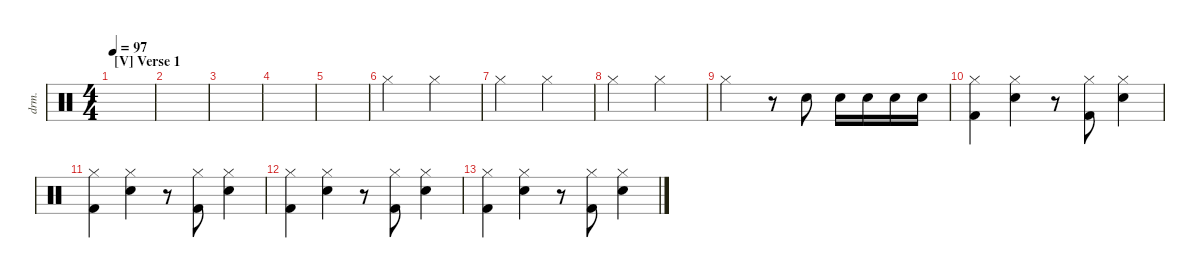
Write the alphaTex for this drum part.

\defaultSystemsLayout 4
\hideDynamics
\bracketExtendMode nobrackets
\track ("Drumkit" "drm.") {instrument percussion}
\staff {score}
\articulation defaults
\ts (4 4)
\section ("V" "Verse 1")
\tempo 97
\clef neutral
\ks c
|
|
|
|
|
"Hi-Hat (closed)".2{beam Down} "Hi-Hat (closed)".2{beam Down} |
"Hi-Hat (closed)".2{beam Down} "Hi-Hat (closed)".2{beam Down} |
"Hi-Hat (closed)".2{beam Down} "Hi-Hat (closed)".2{beam Down} |
"Hi-Hat (closed)".2{beam Down} r.8{beam Down} "Snare (hit) 2".8{beam Down} "Snare (hit) 2".16{beam Down} "Snare (hit) 2".16{beam Down} "Snare (hit) 2".16{beam Down} "Snare (hit) 2".16{beam Down} |
("Kick (hit) 2" "Hi-Hat (closed)").4{beam Down} ("Hi-Hat (closed)" "Snare (hit) 2").4{beam Down} r.8{beam Down} ("Kick (hit) 2" "Hi-Hat (closed)").8{beam Down} ("Hi-Hat (closed)" "Snare (hit) 2").4{beam Down} |
("Kick (hit) 2" "Hi-Hat (closed)").4{beam Down} ("Hi-Hat (closed)" "Snare (hit) 2").4{beam Down} r.8{beam Down} ("Kick (hit) 2" "Hi-Hat (closed)").8{beam Down} ("Hi-Hat (closed)" "Snare (hit) 2").4{beam Down} |
("Kick (hit) 2" "Hi-Hat (closed)").4{beam Down} ("Hi-Hat (closed)" "Snare (hit) 2").4{beam Down} r.8{beam Down} ("Kick (hit) 2" "Hi-Hat (closed)").8{beam Down} ("Hi-Hat (closed)" "Snare (hit) 2").4{beam Down} |
("Kick (hit) 2" "Hi-Hat (closed)").4{beam Down} ("Hi-Hat (closed)" "Snare (hit) 2").4{beam Down} r.8{beam Down} ("Kick (hit) 2" "Hi-Hat (closed)").8{beam Down} ("Hi-Hat (closed)" "Snare (hit) 2").4{beam Down}
